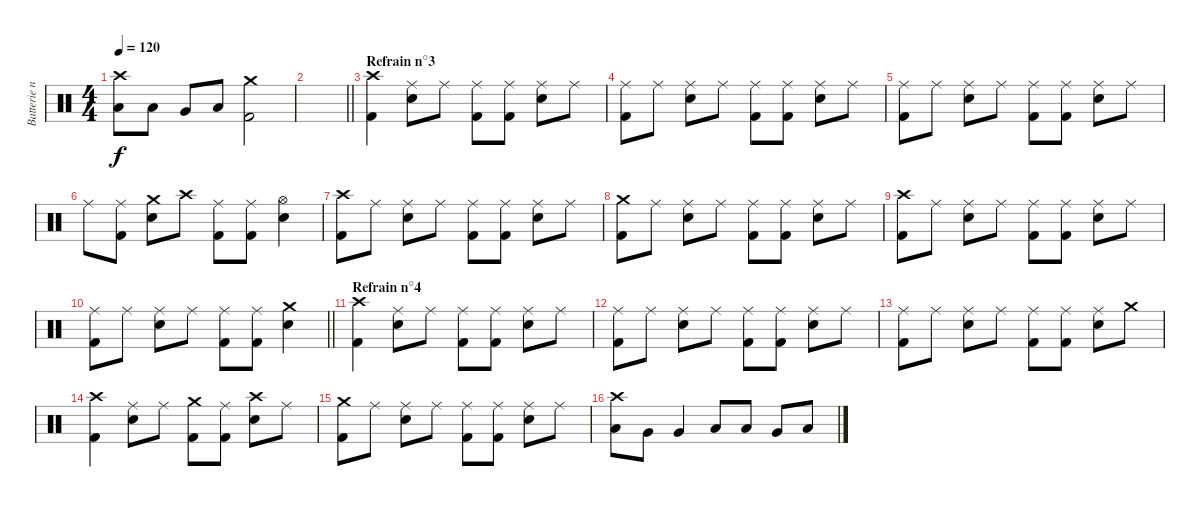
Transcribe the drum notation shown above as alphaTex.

\track ("Batterie n°3" "Batterie n") {instrument percussion}
\staff {score}
\articulation defaults
\ts (4 4)
\tempo 120
\clef neutral
\ks c
("Crash high (hit)" "Low Tom (hit)").8{dy f} "Low Tom (hit)".8 "Very Low Tom (hit)".8 "Low Floor Tom (hit)".8 ("Crash medium (hit)" "Kick (hit) 2").2 |
\barLineRight lightlight
|
\section ("" "Refrain n°3")
("Crash high (hit)" "Kick (hit) 2").4 ("Ride (middle)" "Snare (hit) 2").8 "Ride (middle)".8 ("Ride (middle)" "Kick (hit) 2").8 ("Ride (middle)" "Kick (hit) 2").8 ("Ride (middle)" "Snare (hit) 2").8 "Ride (middle)".8 |
("Ride (middle)" "Kick (hit) 2").8 "Ride (middle)".8 ("Ride (middle)" "Snare (hit) 2").8 "Ride (middle)".8 ("Ride (middle)" "Kick (hit) 2").8 ("Ride (middle)" "Kick (hit) 2").8 ("Ride (middle)" "Snare (hit) 2").8 "Ride (middle)".8 |
("Ride (middle)" "Kick (hit) 2").8 "Ride (middle)".8 ("Ride (middle)" "Snare (hit) 2").8 "Ride (middle)".8 ("Ride (middle)" "Kick (hit) 2").8 ("Ride (middle)" "Kick (hit) 2").8 ("Ride (middle)" "Snare (hit) 2").8 "Ride (middle)".8 |
"Ride (middle)".8 ("Ride (middle)" "Kick (hit) 2").8 ("Crash medium (hit)" "Snare (hit) 2").8 "Crash high (hit)".8 ("Ride (middle)" "Kick (hit) 2").8 ("Ride (middle)" "Kick (hit) 2").8 ("Hi-Hat (open)" "Snare (hit) 2").4 |
("Crash high (hit)" "Kick (hit) 2").8 "Ride (middle)".8 ("Ride (middle)" "Snare (hit) 2").8 "Ride (middle)".8 ("Ride (middle)" "Kick (hit) 2").8 ("Ride (middle)" "Kick (hit) 2").8 ("Ride (middle)" "Snare (hit) 2").8 "Ride (middle)".8 |
("Crash medium (hit)" "Kick (hit) 2").8 "Ride (middle)".8 ("Ride (middle)" "Snare (hit) 2").8 "Ride (middle)".8 ("Ride (middle)" "Kick (hit) 2").8 ("Ride (middle)" "Kick (hit) 2").8 ("Ride (middle)" "Snare (hit) 2").8 "Ride (middle)".8 |
("Crash high (hit)" "Kick (hit) 2").8 "Ride (middle)".8 ("Ride (middle)" "Snare (hit) 2").8 "Ride (middle)".8 ("Ride (middle)" "Kick (hit) 2").8 ("Ride (middle)" "Kick (hit) 2").8 ("Ride (middle)" "Snare (hit) 2").8 "Ride (middle)".8 |
\barLineRight lightlight
("Ride (middle)" "Kick (hit) 2").8 "Ride (middle)".8 ("Ride (middle)" "Snare (hit) 2").8 "Ride (middle)".8 ("Ride (middle)" "Kick (hit) 2").8 ("Ride (middle)" "Kick (hit) 2").8 ("Crash medium (hit)" "Snare (hit) 2").4 |
\section ("" "Refrain n°4")
("Crash high (hit)" "Kick (hit) 2").4 ("Ride (middle)" "Snare (hit) 2").8 "Ride (middle)".8 ("Ride (middle)" "Kick (hit) 2").8 ("Ride (middle)" "Kick (hit) 2").8 ("Ride (middle)" "Snare (hit) 2").8 "Ride (middle)".8 |
("Ride (middle)" "Kick (hit) 2").8 "Ride (middle)".8 ("Ride (middle)" "Snare (hit) 2").8 "Ride (middle)".8 ("Ride (middle)" "Kick (hit) 2").8 ("Ride (middle)" "Kick (hit) 2").8 ("Ride (middle)" "Snare (hit) 2").8 "Ride (middle)".8 |
("Ride (middle)" "Kick (hit) 2").8 "Ride (middle)".8 ("Ride (middle)" "Snare (hit) 2").8 "Ride (middle)".8 ("Ride (middle)" "Kick (hit) 2").8 ("Ride (middle)" "Kick (hit) 2").8 ("Ride (middle)" "Snare (hit) 2").8 "Crash medium (hit)".8 |
("Crash high (hit)" "Kick (hit) 2").4 ("Ride (middle)" "Snare (hit) 2").8 "Ride (middle)".8 ("Crash medium (hit)" "Kick (hit) 2").8 ("Ride (middle)" "Kick (hit) 2").8 ("Crash high (hit)" "Snare (hit) 2").8 "Ride (middle)".8 |
("Crash medium (hit)" "Kick (hit) 2").8 "Ride (middle)".8 ("Ride (middle)" "Snare (hit) 2").8 "Ride (middle)".8 ("Ride (middle)" "Kick (hit) 2").8 ("Ride (middle)" "Kick (hit) 2").8 ("Ride (middle)" "Snare (hit) 2").8 "Ride (middle)".8 |
("Crash high (hit)" "Low Tom (hit)").8 "Very Low Tom (hit)".8 "Very Low Tom (hit)".4 "Low Tom (hit)".8 "Low Tom (hit)".8 "Very Low Tom (hit)".8 "Low Floor Tom (hit)".8
